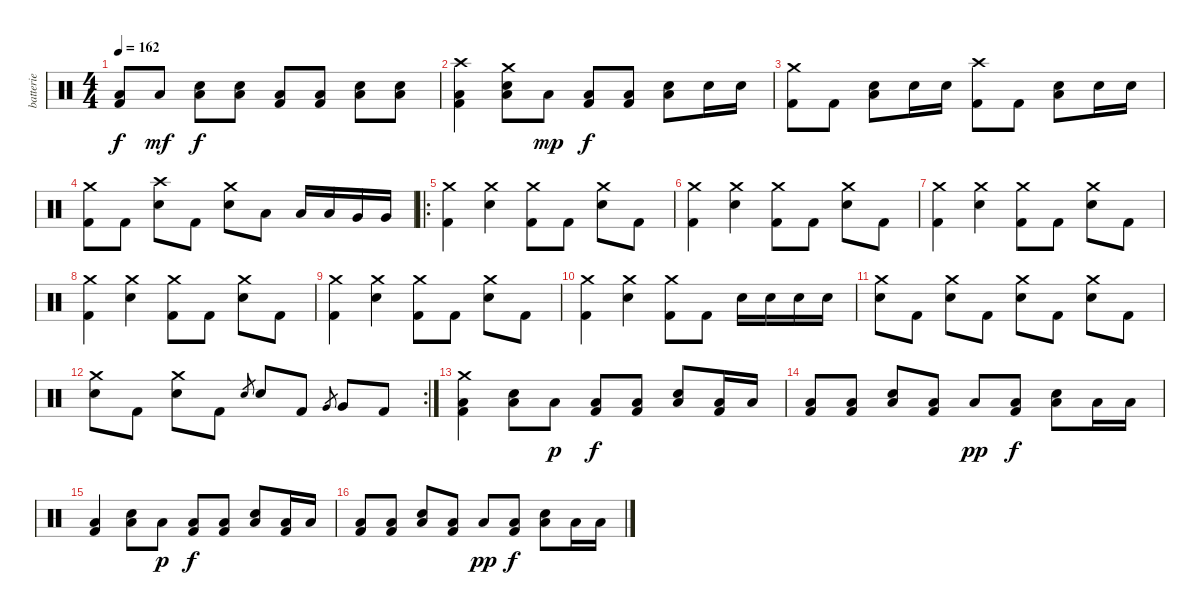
\track ("batterie" "batterie") {instrument percussion}
\staff {score}
\articulation defaults
\ts (4 4)
\tempo 162
\clef neutral
\ks c
("Low Floor Tom (hit)" "Kick (hit) 2").8{dy f} "Low Floor Tom (hit)".8{dy mf} ("Low Floor Tom (hit)" "Electric Snare (hit)").8{dy f} ("Low Floor Tom (hit)" "Electric Snare (hit)").8 ("Low Floor Tom (hit)" "Kick (hit) 2").8 ("Low Floor Tom (hit)" "Kick (hit) 2").8 ("Low Floor Tom (hit)" "Electric Snare (hit)").8 ("Low Floor Tom (hit)" "Electric Snare (hit)").8 |
("Low Floor Tom (hit)" "Crash high (hit)" "Kick (hit) 2").4 ("Low Floor Tom (hit)" "Crash medium (hit)" "Electric Snare (hit)").8 "Low Floor Tom (hit)".8{dy mp} ("Low Floor Tom (hit)" "Kick (hit) 2").8{dy f} ("Low Floor Tom (hit)" "Kick (hit) 2").8 ("Low Floor Tom (hit)" "Electric Snare (hit)").8 "Electric Snare (hit)".16 "Electric Snare (hit)".16 |
("Crash medium (hit)" "Kick (hit) 2").8 "Kick (hit) 2".8 ("Low Floor Tom (hit)" "Electric Snare (hit)").8 "Electric Snare (hit)".16 "Electric Snare (hit)".16 ("Crash high (hit)" "Kick (hit) 2").8 "Kick (hit) 2".8 ("Low Floor Tom (hit)" "Electric Snare (hit)").8 "Electric Snare (hit)".16 "Electric Snare (hit)".16 |
("Crash medium (hit)" "Kick (hit) 2").8 "Kick (hit) 2".8 ("Crash high (hit)" "Electric Snare (hit)").8 "Kick (hit) 2".8 ("Crash medium (hit)" "Electric Snare (hit)").8 "Low Tom (hit)".8 "Low Tom (hit)".16 "Low Tom (hit)".16 "Very Low Tom (hit)".16 "Very Low Tom (hit)".16 |
\ro
("Crash medium (hit)" "Kick (hit) 2").4 ("Crash medium (hit)" "Electric Snare (hit)").4 ("Crash medium (hit)" "Kick (hit) 2").8 "Kick (hit) 2".8 ("Crash medium (hit)" "Electric Snare (hit)").8 "Kick (hit) 2".8 |
("Crash medium (hit)" "Kick (hit) 2").4 ("Crash medium (hit)" "Electric Snare (hit)").4 ("Crash medium (hit)" "Kick (hit) 2").8 "Kick (hit) 2".8 ("Crash medium (hit)" "Electric Snare (hit)").8 "Kick (hit) 2".8 |
("Crash medium (hit)" "Kick (hit) 2").4 ("Crash medium (hit)" "Electric Snare (hit)").4 ("Crash medium (hit)" "Kick (hit) 2").8 "Kick (hit) 2".8 ("Crash medium (hit)" "Electric Snare (hit)").8 "Kick (hit) 2".8 |
("Crash medium (hit)" "Kick (hit) 2").4 ("Crash medium (hit)" "Electric Snare (hit)").4 ("Crash medium (hit)" "Kick (hit) 2").8 "Kick (hit) 2".8 ("Crash medium (hit)" "Electric Snare (hit)").8 "Kick (hit) 2".8 |
("Crash medium (hit)" "Kick (hit) 2").4 ("Crash medium (hit)" "Electric Snare (hit)").4 ("Crash medium (hit)" "Kick (hit) 2").8 "Kick (hit) 2".8 ("Crash medium (hit)" "Electric Snare (hit)").8 "Kick (hit) 2".8 |
("Crash medium (hit)" "Kick (hit) 2").4 ("Crash medium (hit)" "Electric Snare (hit)").4 ("Crash medium (hit)" "Kick (hit) 2").8 "Kick (hit) 2".8 "Electric Snare (hit)".16 "Electric Snare (hit)".16 "Electric Snare (hit)".16 "Electric Snare (hit)".16 |
("Crash medium (hit)" "Electric Snare (hit)").8 "Kick (hit) 2".8 ("Crash medium (hit)" "Electric Snare (hit)").8 "Kick (hit) 2".8 ("Crash medium (hit)" "Electric Snare (hit)").8 "Kick (hit) 2".8 ("Crash medium (hit)" "Electric Snare (hit)").8 "Kick (hit) 2".8 |
\rc 2
("Crash medium (hit)" "Electric Snare (hit)").8 "Kick (hit) 2".8 ("Crash medium (hit)" "Electric Snare (hit)").8 "Kick (hit) 2".8 "Electric Snare (hit)".8{gr} "Electric Snare (hit)".8 "Kick (hit) 2".8 "Very Low Tom (hit)".8{gr} "Very Low Tom (hit)".8 "Kick (hit) 2".8 |
("Low Floor Tom (hit)" "Crash medium (hit)" "Kick (hit) 2").4 ("Low Floor Tom (hit)" "Electric Snare (hit)").8 "Low Floor Tom (hit)".8{dy p} ("Low Floor Tom (hit)" "Kick (hit) 2").8{dy f} ("Low Floor Tom (hit)" "Kick (hit) 2").8 ("Low Floor Tom (hit)" "Electric Snare (hit)").8 ("Low Floor Tom (hit)" "Kick (hit) 2").16 "Low Floor Tom (hit)".16 |
("Low Floor Tom (hit)" "Kick (hit) 2").8 ("Low Floor Tom (hit)" "Kick (hit) 2").8 ("Low Floor Tom (hit)" "Electric Snare (hit)").8 ("Low Floor Tom (hit)" "Kick (hit) 2").8 "Low Floor Tom (hit)".8{dy pp} ("Low Floor Tom (hit)" "Kick (hit) 2").8{dy f} ("Low Floor Tom (hit)" "Electric Snare (hit)").8 "Low Floor Tom (hit)".16 "Low Floor Tom (hit)".16 |
("Low Floor Tom (hit)" "Kick (hit) 2").4 ("Low Floor Tom (hit)" "Electric Snare (hit)").8 "Low Floor Tom (hit)".8{dy p} ("Low Floor Tom (hit)" "Kick (hit) 2").8{dy f} ("Low Floor Tom (hit)" "Kick (hit) 2").8 ("Low Floor Tom (hit)" "Electric Snare (hit)").8 ("Low Floor Tom (hit)" "Kick (hit) 2").16 "Low Floor Tom (hit)".16 |
("Low Floor Tom (hit)" "Kick (hit) 2").8 ("Low Floor Tom (hit)" "Kick (hit) 2").8 ("Low Floor Tom (hit)" "Electric Snare (hit)").8 ("Low Floor Tom (hit)" "Kick (hit) 2").8 "Low Floor Tom (hit)".8{dy pp} ("Low Floor Tom (hit)" "Kick (hit) 2").8{dy f} ("Low Floor Tom (hit)" "Electric Snare (hit)").8 "Low Floor Tom (hit)".16 "Low Floor Tom (hit)".16
